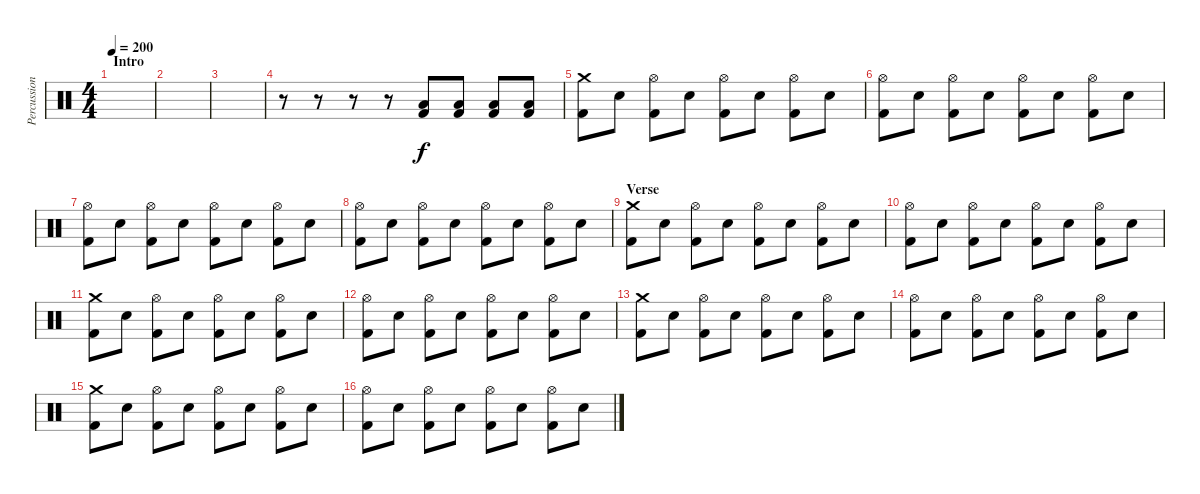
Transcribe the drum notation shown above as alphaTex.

\track ("Percussion" "Percussion") {instrument percussion}
\staff {score}
\articulation defaults
\ts (4 4)
\section ("" "Intro")
\tempo 200
\clef neutral
\ks c
|
|
|
r.8 r.8 r.8 r.8 ("Low Floor Tom (hit)" "Kick (hit) 2").8 ("Low Floor Tom (hit)" "Kick (hit) 2").8 ("Low Floor Tom (hit)" "Kick (hit) 2").8 ("Low Floor Tom (hit)" "Kick (hit) 2").8 |
("Crash medium (hit)" "Kick (hit) 2").8 "Snare (hit) 2".8 ("Hi-Hat (open)" "Kick (hit) 2").8 "Snare (hit) 2".8 ("Hi-Hat (open)" "Kick (hit) 2").8 "Snare (hit) 2".8 ("Hi-Hat (open)" "Kick (hit) 2").8 "Snare (hit) 2".8 |
("Hi-Hat (open)" "Kick (hit) 2").8 "Snare (hit) 2".8 ("Hi-Hat (open)" "Kick (hit) 2").8 "Snare (hit) 2".8 ("Hi-Hat (open)" "Kick (hit) 2").8 "Snare (hit) 2".8 ("Hi-Hat (open)" "Kick (hit) 2").8 "Snare (hit) 2".8 |
("Hi-Hat (open)" "Kick (hit) 2").8 "Snare (hit) 2".8 ("Hi-Hat (open)" "Kick (hit) 2").8 "Snare (hit) 2".8 ("Hi-Hat (open)" "Kick (hit) 2").8 "Snare (hit) 2".8 ("Hi-Hat (open)" "Kick (hit) 2").8 "Snare (hit) 2".8 |
("Hi-Hat (open)" "Kick (hit) 2").8 "Snare (hit) 2".8 ("Hi-Hat (open)" "Kick (hit) 2").8 "Snare (hit) 2".8 ("Hi-Hat (open)" "Kick (hit) 2").8 "Snare (hit) 2".8 ("Hi-Hat (open)" "Kick (hit) 2").8 "Snare (hit) 2".8 |
\section ("" "Verse")
("Crash medium (hit)" "Kick (hit) 2").8 "Snare (hit) 2".8 ("Hi-Hat (open)" "Kick (hit) 2").8 "Snare (hit) 2".8 ("Hi-Hat (open)" "Kick (hit) 2").8 "Snare (hit) 2".8 ("Hi-Hat (open)" "Kick (hit) 2").8 "Snare (hit) 2".8 |
("Hi-Hat (open)" "Kick (hit) 2").8 "Snare (hit) 2".8 ("Hi-Hat (open)" "Kick (hit) 2").8 "Snare (hit) 2".8 ("Hi-Hat (open)" "Kick (hit) 2").8 "Snare (hit) 2".8 ("Hi-Hat (open)" "Kick (hit) 2").8 "Snare (hit) 2".8 |
("Crash medium (hit)" "Kick (hit) 2").8 "Snare (hit) 2".8 ("Hi-Hat (open)" "Kick (hit) 2").8 "Snare (hit) 2".8 ("Hi-Hat (open)" "Kick (hit) 2").8 "Snare (hit) 2".8 ("Hi-Hat (open)" "Kick (hit) 2").8 "Snare (hit) 2".8 |
("Hi-Hat (open)" "Kick (hit) 2").8 "Snare (hit) 2".8 ("Hi-Hat (open)" "Kick (hit) 2").8 "Snare (hit) 2".8 ("Hi-Hat (open)" "Kick (hit) 2").8 "Snare (hit) 2".8 ("Hi-Hat (open)" "Kick (hit) 2").8 "Snare (hit) 2".8 |
("Crash medium (hit)" "Kick (hit) 2").8 "Snare (hit) 2".8 ("Hi-Hat (open)" "Kick (hit) 2").8 "Snare (hit) 2".8 ("Hi-Hat (open)" "Kick (hit) 2").8 "Snare (hit) 2".8 ("Hi-Hat (open)" "Kick (hit) 2").8 "Snare (hit) 2".8 |
("Hi-Hat (open)" "Kick (hit) 2").8 "Snare (hit) 2".8 ("Hi-Hat (open)" "Kick (hit) 2").8 "Snare (hit) 2".8 ("Hi-Hat (open)" "Kick (hit) 2").8 "Snare (hit) 2".8 ("Hi-Hat (open)" "Kick (hit) 2").8 "Snare (hit) 2".8 |
("Crash medium (hit)" "Kick (hit) 2").8 "Snare (hit) 2".8 ("Hi-Hat (open)" "Kick (hit) 2").8 "Snare (hit) 2".8 ("Hi-Hat (open)" "Kick (hit) 2").8 "Snare (hit) 2".8 ("Hi-Hat (open)" "Kick (hit) 2").8 "Snare (hit) 2".8 |
("Hi-Hat (open)" "Kick (hit) 2").8 "Snare (hit) 2".8 ("Hi-Hat (open)" "Kick (hit) 2").8 "Snare (hit) 2".8 ("Hi-Hat (open)" "Kick (hit) 2").8 "Snare (hit) 2".8 ("Hi-Hat (open)" "Kick (hit) 2").8 "Snare (hit) 2".8
